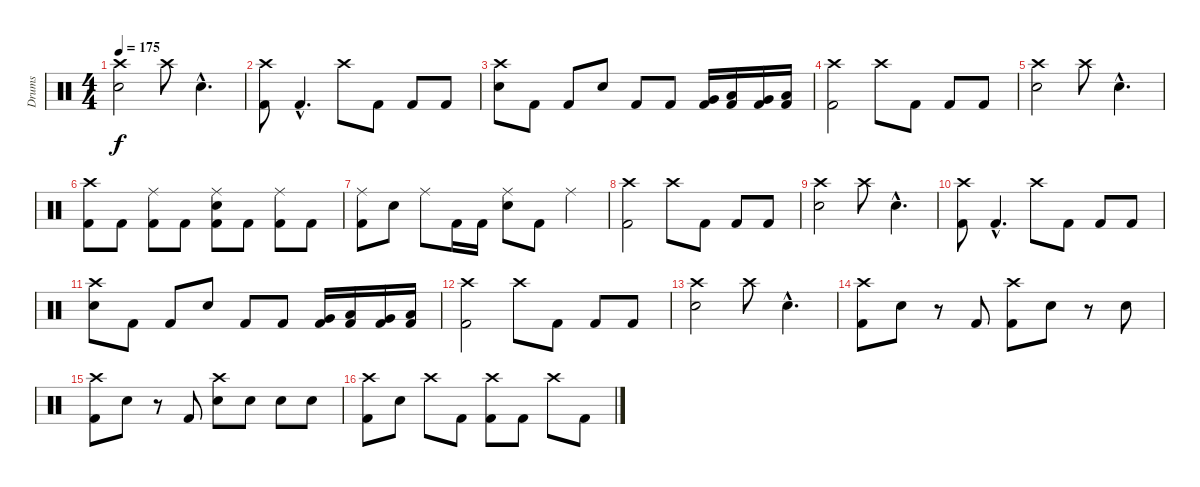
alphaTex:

\track ("Drums" "Drums") {instrument percussion}
\staff {score}
\articulation defaults
\ts (4 4)
\tempo 175
\clef neutral
\ks c
("Crash high (hit)" "Electric Snare (hit)").2{dy f} "Crash high (hit)".8 "Electric Snare (hit)"{hac}.4{d} |
("Crash high (hit)" "Kick (hit) 2").8 "Kick (hit) 2"{hac}.4{d} "Crash high (hit)".8 "Kick (hit) 2".8 "Kick (hit) 2".8 "Kick (hit) 2".8 |
("Crash high (hit)" "Electric Snare (hit)").8 "Kick (hit) 2".8 "Kick (hit) 2".8 "Electric Snare (hit)".8 "Kick (hit) 2".8 "Kick (hit) 2".8 ("Very Low Tom (hit)" "Kick (hit) 2").16 ("Low Tom (hit)" "Kick (hit) 2").16 ("Very Low Tom (hit)" "Kick (hit) 2").16 ("Low Floor Tom (hit)" "Kick (hit) 2").16 |
("Crash high (hit)" "Kick (hit) 2").2 "Crash high (hit)".8 "Kick (hit) 2".8 "Kick (hit) 2".8 "Kick (hit) 2".8 |
("Crash high (hit)" "Electric Snare (hit)").2 "Crash high (hit)".8 "Electric Snare (hit)"{hac}.4{d} |
("Crash high (hit)" "Kick (hit) 2").8 "Kick (hit) 2".8 ("Ride (middle)" "Kick (hit) 2").8 "Kick (hit) 2".8 ("Ride (middle)" "Electric Snare (hit)" "Kick (hit) 2").8 "Kick (hit) 2".8 ("Ride (middle)" "Kick (hit) 2").8 "Kick (hit) 2".8 |
("Ride (middle)" "Kick (hit) 2").8 "Electric Snare (hit)".8 "Ride (middle)".8 "Kick (hit) 2".16 "Kick (hit) 2".16 ("Ride (middle)" "Electric Snare (hit)").8 "Kick (hit) 2".8 "Ride (middle)".4 |
("Crash high (hit)" "Kick (hit) 2").2 "Crash high (hit)".8 "Kick (hit) 2".8 "Kick (hit) 2".8 "Kick (hit) 2".8 |
("Crash high (hit)" "Electric Snare (hit)").2 "Crash high (hit)".8 "Electric Snare (hit)"{hac}.4{d} |
("Crash high (hit)" "Kick (hit) 2").8 "Kick (hit) 2"{hac}.4{d} "Crash high (hit)".8 "Kick (hit) 2".8 "Kick (hit) 2".8 "Kick (hit) 2".8 |
("Crash high (hit)" "Electric Snare (hit)").8 "Kick (hit) 2".8 "Kick (hit) 2".8 "Electric Snare (hit)".8 "Kick (hit) 2".8 "Kick (hit) 2".8 ("Very Low Tom (hit)" "Kick (hit) 2").16 ("Low Tom (hit)" "Kick (hit) 2").16 ("Very Low Tom (hit)" "Kick (hit) 2").16 ("Low Floor Tom (hit)" "Kick (hit) 2").16 |
("Crash high (hit)" "Kick (hit) 2").2 "Crash high (hit)".8 "Kick (hit) 2".8 "Kick (hit) 2".8 "Kick (hit) 2".8 |
("Crash high (hit)" "Electric Snare (hit)").2 "Crash high (hit)".8 "Electric Snare (hit)"{hac}.4{d} |
("Crash high (hit)" "Kick (hit) 2").8 "Electric Snare (hit)".8 r.8 "Kick (hit) 2".8 ("Crash high (hit)" "Kick (hit) 2").8 "Electric Snare (hit)".8 r.8 "Electric Snare (hit)".8 |
("Crash high (hit)" "Kick (hit) 2").8 "Electric Snare (hit)".8 r.8 "Kick (hit) 2".8 ("Crash high (hit)" "Electric Snare (hit)").8 "Electric Snare (hit)".8 "Electric Snare (hit)".8 "Electric Snare (hit)".8 |
("Crash high (hit)" "Kick (hit) 2").8 "Electric Snare (hit)".8 "Crash high (hit)".8 "Kick (hit) 2".8 ("Crash high (hit)" "Kick (hit) 2").8 "Kick (hit) 2".8 "Crash high (hit)".8 "Kick (hit) 2".8
